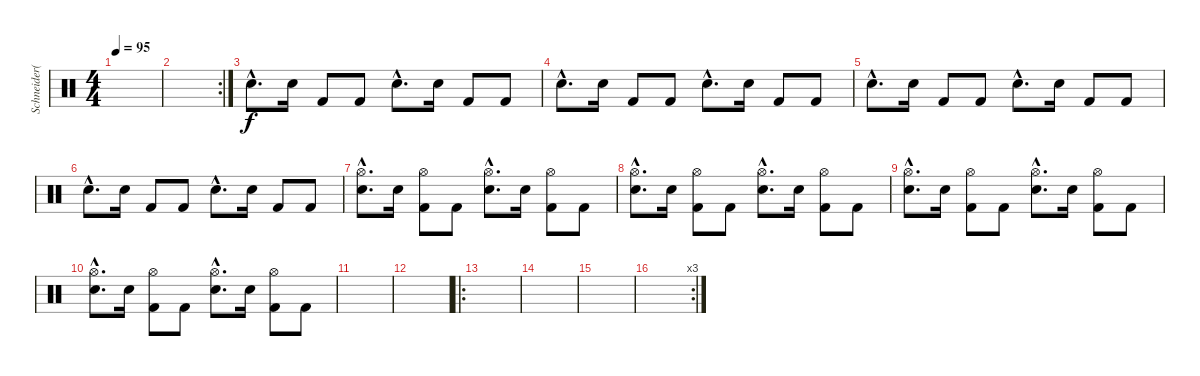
\track ("Schneider(Synth)" "Schneider(") {instrument percussion}
\staff {score}
\articulation defaults
\ts (4 4)
\tempo 95
\clef neutral
\ks c
|
\rc 2
|
"Snare (hit) 2"{hac}.8{d} "Snare (hit) 2".16 "Kick (hit) 2".8 "Kick (hit) 2".8 "Snare (hit) 2"{hac}.8{d} "Snare (hit) 2".16 "Kick (hit) 2".8 "Kick (hit) 2".8 |
"Snare (hit) 2"{hac}.8{d} "Snare (hit) 2".16 "Kick (hit) 2".8 "Kick (hit) 2".8 "Snare (hit) 2"{hac}.8{d} "Snare (hit) 2".16 "Kick (hit) 2".8 "Kick (hit) 2".8 |
"Snare (hit) 2"{hac}.8{d} "Snare (hit) 2".16 "Kick (hit) 2".8 "Kick (hit) 2".8 "Snare (hit) 2"{hac}.8{d} "Snare (hit) 2".16 "Kick (hit) 2".8 "Kick (hit) 2".8 |
"Snare (hit) 2"{hac}.8{d} "Snare (hit) 2".16 "Kick (hit) 2".8 "Kick (hit) 2".8 "Snare (hit) 2"{hac}.8{d} "Snare (hit) 2".16 "Kick (hit) 2".8 "Kick (hit) 2".8 |
("Snare (hit) 2"{hac} "Hi-Hat (open)"{hac}).8{d} "Snare (hit) 2".16 ("Kick (hit) 2" "Hi-Hat (open)").8 "Kick (hit) 2".8 ("Snare (hit) 2"{hac} "Hi-Hat (open)"{hac}).8{d} "Snare (hit) 2".16 ("Kick (hit) 2" "Hi-Hat (open)").8 "Kick (hit) 2".8 |
("Snare (hit) 2"{hac} "Hi-Hat (open)"{hac}).8{d} "Snare (hit) 2".16 ("Kick (hit) 2" "Hi-Hat (open)").8 "Kick (hit) 2".8 ("Snare (hit) 2"{hac} "Hi-Hat (open)"{hac}).8{d} "Snare (hit) 2".16 ("Kick (hit) 2" "Hi-Hat (open)").8 "Kick (hit) 2".8 |
("Snare (hit) 2"{hac} "Hi-Hat (open)"{hac}).8{d} "Snare (hit) 2".16 ("Kick (hit) 2" "Hi-Hat (open)").8 "Kick (hit) 2".8 ("Snare (hit) 2"{hac} "Hi-Hat (open)"{hac}).8{d} "Snare (hit) 2".16 ("Kick (hit) 2" "Hi-Hat (open)").8 "Kick (hit) 2".8 |
("Snare (hit) 2"{hac} "Hi-Hat (open)"{hac}).8{d} "Snare (hit) 2".16 ("Kick (hit) 2" "Hi-Hat (open)").8 "Kick (hit) 2".8 ("Snare (hit) 2"{hac} "Hi-Hat (open)"{hac}).8{d} "Snare (hit) 2".16 ("Kick (hit) 2" "Hi-Hat (open)").8 "Kick (hit) 2".8 |
|
|
\ro
|
|
|
\rc 3
